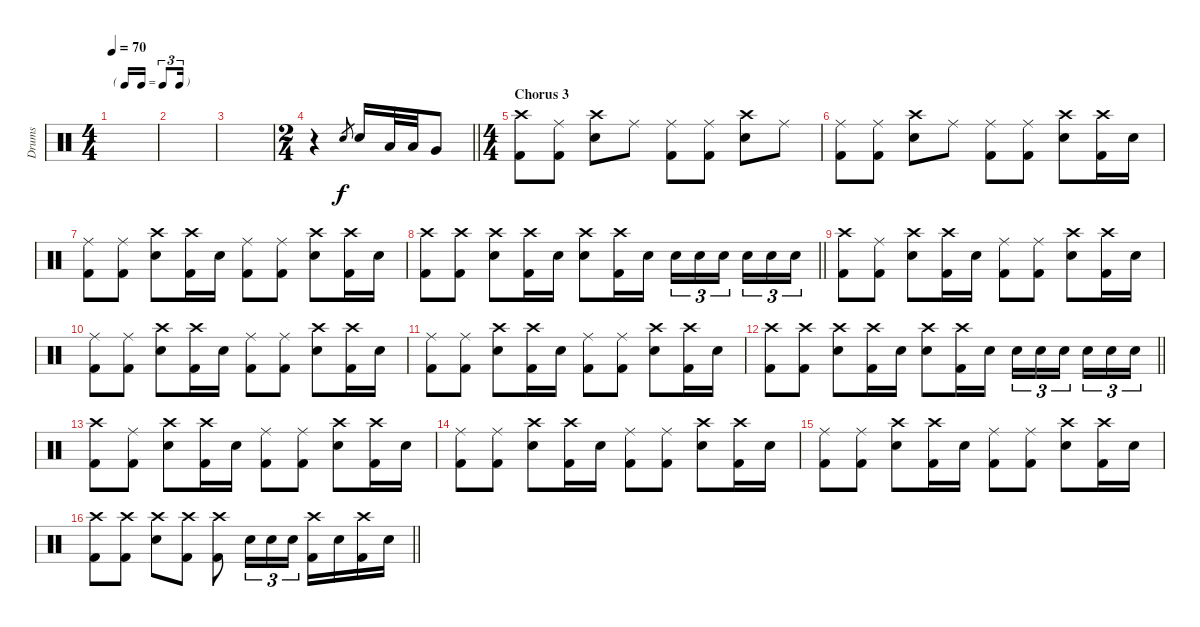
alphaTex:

\track ("Drums" "Drums") {instrument percussion}
\staff {score}
\articulation defaults
\ts (4 4)
\tf triplet16th
\tempo 70
\clef neutral
\ks c
|
|
|
\ts (2 4)
\barLineRight lightlight
r.4 "Snare (hit) 2".8{gr} "Snare (hit) 2".16 "Low Tom (hit)".32 "Low Tom (hit)".32 "Very Low Tom (hit)".8 |
\ts (4 4)
\section ("" "Chorus 3")
("Crash high (hit)" "Kick (hit) 2").8 ("Ride (middle)" "Kick (hit) 2").8 ("Crash high (hit)" "Snare (hit) 2").8 "Ride (middle)".8 ("Ride (middle)" "Kick (hit) 2").8 ("Ride (middle)" "Kick (hit) 2").8 ("Crash high (hit)" "Snare (hit) 2").8 "Ride (middle)".8 |
("Ride (middle)" "Kick (hit) 2").8 ("Ride (middle)" "Kick (hit) 2").8 ("Crash high (hit)" "Snare (hit) 2").8 "Ride (middle)".8 ("Ride (middle)" "Kick (hit) 2").8 ("Ride (middle)" "Kick (hit) 2").8 ("Crash high (hit)" "Snare (hit) 2").8 ("Crash high (hit)" "Kick (hit) 2").16 "Snare (hit) 2".16 |
("Ride (middle)" "Kick (hit) 2").8 ("Ride (middle)" "Kick (hit) 2").8 ("Crash high (hit)" "Snare (hit) 2").8 ("Crash high (hit)" "Kick (hit) 2").16 "Snare (hit) 2".16 ("Ride (middle)" "Kick (hit) 2").8 ("Ride (middle)" "Kick (hit) 2").8 ("Crash high (hit)" "Snare (hit) 2").8 ("Crash high (hit)" "Kick (hit) 2").16 "Snare (hit) 2".16 |
\barLineRight lightlight
("Crash high (hit)" "Kick (hit) 2").8 ("Crash high (hit)" "Kick (hit) 2").8 ("Crash high (hit)" "Snare (hit) 2").8 ("Crash high (hit)" "Kick (hit) 2").16 "Snare (hit) 2".16 ("Crash high (hit)" "Snare (hit) 2").8 ("Crash high (hit)" "Kick (hit) 2").16 "Snare (hit) 2".16 "Snare (hit) 2".16{tu (3 2)} "Snare (hit) 2".16{tu (3 2)} "Snare (hit) 2".16{tu (3 2) beam splitsecondary} "Snare (hit) 2".16{tu (3 2)} "Snare (hit) 2".16{tu (3 2)} "Snare (hit) 2".16{tu (3 2)} |
("Crash high (hit)" "Kick (hit) 2").8 ("Ride (middle)" "Kick (hit) 2").8 ("Crash high (hit)" "Snare (hit) 2").8 ("Crash high (hit)" "Kick (hit) 2").16 "Snare (hit) 2".16 ("Ride (middle)" "Kick (hit) 2").8 ("Ride (middle)" "Kick (hit) 2").8 ("Crash high (hit)" "Snare (hit) 2").8 ("Crash high (hit)" "Kick (hit) 2").16 "Snare (hit) 2".16 |
("Ride (middle)" "Kick (hit) 2").8 ("Ride (middle)" "Kick (hit) 2").8 ("Crash high (hit)" "Snare (hit) 2").8 ("Crash high (hit)" "Kick (hit) 2").16 "Snare (hit) 2".16 ("Ride (middle)" "Kick (hit) 2").8 ("Ride (middle)" "Kick (hit) 2").8 ("Crash high (hit)" "Snare (hit) 2").8 ("Crash high (hit)" "Kick (hit) 2").16 "Snare (hit) 2".16 |
("Ride (middle)" "Kick (hit) 2").8 ("Ride (middle)" "Kick (hit) 2").8 ("Crash high (hit)" "Snare (hit) 2").8 ("Crash high (hit)" "Kick (hit) 2").16 "Snare (hit) 2".16 ("Ride (middle)" "Kick (hit) 2").8 ("Ride (middle)" "Kick (hit) 2").8 ("Crash high (hit)" "Snare (hit) 2").8 ("Crash high (hit)" "Kick (hit) 2").16 "Snare (hit) 2".16 |
\barLineRight lightlight
("Crash high (hit)" "Kick (hit) 2").8 ("Crash high (hit)" "Kick (hit) 2").8 ("Crash high (hit)" "Snare (hit) 2").8 ("Crash high (hit)" "Kick (hit) 2").16 "Snare (hit) 2".16 ("Crash high (hit)" "Snare (hit) 2").8 ("Crash high (hit)" "Kick (hit) 2").16 "Snare (hit) 2".16 "Snare (hit) 2".16{tu (3 2)} "Snare (hit) 2".16{tu (3 2)} "Snare (hit) 2".16{tu (3 2) beam splitsecondary} "Snare (hit) 2".16{tu (3 2)} "Snare (hit) 2".16{tu (3 2)} "Snare (hit) 2".16{tu (3 2)} |
("Crash high (hit)" "Kick (hit) 2").8 ("Ride (middle)" "Kick (hit) 2").8 ("Crash high (hit)" "Snare (hit) 2").8 ("Crash high (hit)" "Kick (hit) 2").16 "Snare (hit) 2".16 ("Ride (middle)" "Kick (hit) 2").8 ("Ride (middle)" "Kick (hit) 2").8 ("Crash high (hit)" "Snare (hit) 2").8 ("Crash high (hit)" "Kick (hit) 2").16 "Snare (hit) 2".16 |
("Ride (middle)" "Kick (hit) 2").8 ("Ride (middle)" "Kick (hit) 2").8 ("Crash high (hit)" "Snare (hit) 2").8 ("Crash high (hit)" "Kick (hit) 2").16 "Snare (hit) 2".16 ("Ride (middle)" "Kick (hit) 2").8 ("Ride (middle)" "Kick (hit) 2").8 ("Crash high (hit)" "Snare (hit) 2").8 ("Crash high (hit)" "Kick (hit) 2").16 "Snare (hit) 2".16 |
("Ride (middle)" "Kick (hit) 2").8 ("Ride (middle)" "Kick (hit) 2").8 ("Crash high (hit)" "Snare (hit) 2").8 ("Crash high (hit)" "Kick (hit) 2").16 "Snare (hit) 2".16 ("Ride (middle)" "Kick (hit) 2").8 ("Ride (middle)" "Kick (hit) 2").8 ("Crash high (hit)" "Snare (hit) 2").8 ("Crash high (hit)" "Kick (hit) 2").16 "Snare (hit) 2".16 |
\barLineRight lightlight
("Crash high (hit)" "Kick (hit) 2").8 ("Crash high (hit)" "Kick (hit) 2").8 ("Crash high (hit)" "Snare (hit) 2").8 ("Crash high (hit)" "Kick (hit) 2").8 ("Crash high (hit)" "Kick (hit) 2").8 "Snare (hit) 2".16{tu (3 2)} "Snare (hit) 2".16{tu (3 2)} "Snare (hit) 2".16{tu (3 2)} ("Crash high (hit)" "Kick (hit) 2").16 "Snare (hit) 2".16 ("Crash high (hit)" "Kick (hit) 2").16 "Snare (hit) 2".16
